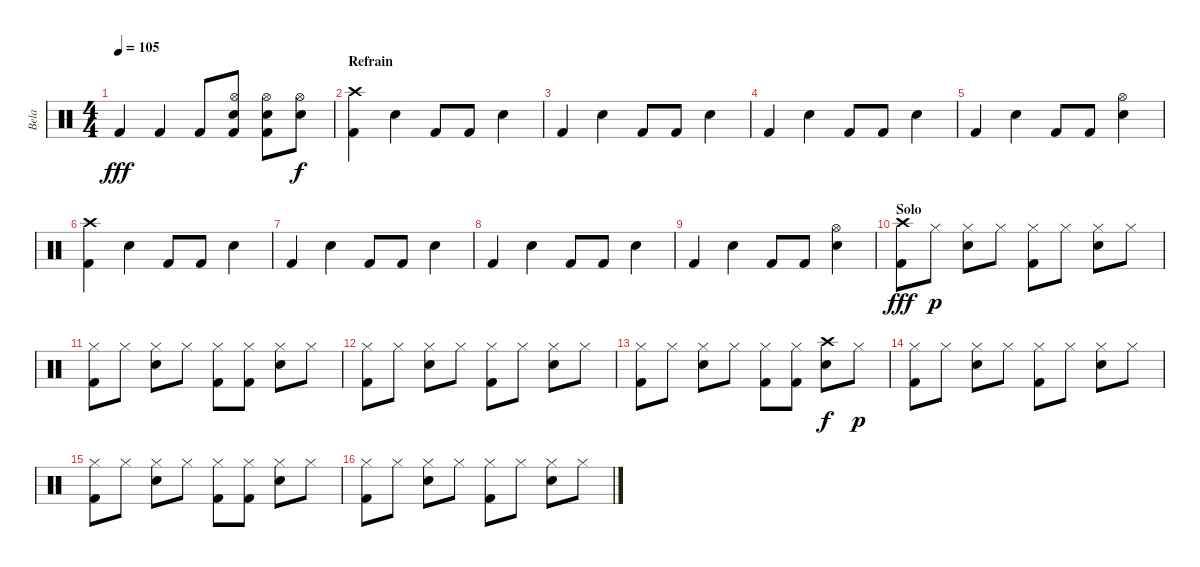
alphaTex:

\track ("Bela" "Bela") {instrument percussion}
\staff {score}
\articulation defaults
\ts (4 4)
\tempo 105
\clef neutral
\ks c "Kick (hit) 2".4{dy fff} "Kick (hit) 2".4 "Kick (hit) 2".8
("Hi-Hat (open)" "Snare (hit) 2" "Kick (hit) 2").8 ("Hi-Hat (open)" "Snare (hit) 2" "Kick (hit) 2").8 ("Hi-Hat (open)" "Snare (hit) 2").8{dy f} |
\section ("" "Refrain")
("Crash high (hit)" "Kick (hit) 2").4 "Snare (hit) 2".4 "Kick (hit) 2".8 "Kick (hit) 2".8 "Snare (hit) 2".4 |
"Kick (hit) 2".4 "Snare (hit) 2".4 "Kick (hit) 2".8 "Kick (hit) 2".8 "Snare (hit) 2".4 |
"Kick (hit) 2".4 "Snare (hit) 2".4 "Kick (hit) 2".8 "Kick (hit) 2".8 "Snare (hit) 2".4 |
"Kick (hit) 2".4 "Snare (hit) 2".4 "Kick (hit) 2".8 "Kick (hit) 2".8 ("Hi-Hat (open)" "Snare (hit) 2").4 |
("Crash high (hit)" "Kick (hit) 2").4 "Snare (hit) 2".4 "Kick (hit) 2".8 "Kick (hit) 2".8 "Snare (hit) 2".4 |
"Kick (hit) 2".4 "Snare (hit) 2".4 "Kick (hit) 2".8 "Kick (hit) 2".8 "Snare (hit) 2".4 |
"Kick (hit) 2".4 "Snare (hit) 2".4 "Kick (hit) 2".8 "Kick (hit) 2".8 "Snare (hit) 2".4 |
"Kick (hit) 2".4 "Snare (hit) 2".4 "Kick (hit) 2".8 "Kick (hit) 2".8 ("Hi-Hat (open)" "Snare (hit) 2").4 |
\section ("" "Solo")
("Crash high (hit)" "Kick (hit) 2").8{dy fff} "Hi-Hat (closed)".8{dy p} ("Hi-Hat (closed)" "Snare (hit) 2").8 "Hi-Hat (closed)".8 ("Hi-Hat (closed)" "Kick (hit) 2").8 "Hi-Hat (closed)".8 ("Hi-Hat (closed)" "Snare (hit) 2").8 "Hi-Hat (closed)".8 |
("Hi-Hat (closed)" "Kick (hit) 2").8 "Hi-Hat (closed)".8 ("Hi-Hat (closed)" "Snare (hit) 2").8 "Hi-Hat (closed)".8 ("Hi-Hat (closed)" "Kick (hit) 2").8 ("Hi-Hat (closed)" "Kick (hit) 2").8 ("Hi-Hat (closed)" "Snare (hit) 2").8 "Hi-Hat (closed)".8 |
("Hi-Hat (closed)" "Kick (hit) 2").8 "Hi-Hat (closed)".8 ("Hi-Hat (closed)" "Snare (hit) 2").8 "Hi-Hat (closed)".8 ("Hi-Hat (closed)" "Kick (hit) 2").8 "Hi-Hat (closed)".8 ("Hi-Hat (closed)" "Snare (hit) 2").8 "Hi-Hat (closed)".8 |
("Hi-Hat (closed)" "Kick (hit) 2").8 "Hi-Hat (closed)".8 ("Hi-Hat (closed)" "Snare (hit) 2").8 "Hi-Hat (closed)".8 ("Hi-Hat (closed)" "Kick (hit) 2").8 ("Hi-Hat (closed)" "Kick (hit) 2").8 ("Crash high (hit)" "Snare (hit) 2").8{dy f} "Hi-Hat (closed)".8{dy p} |
("Hi-Hat (closed)" "Kick (hit) 2").8 "Hi-Hat (closed)".8 ("Hi-Hat (closed)" "Snare (hit) 2").8 "Hi-Hat (closed)".8 ("Hi-Hat (closed)" "Kick (hit) 2").8 "Hi-Hat (closed)".8 ("Hi-Hat (closed)" "Snare (hit) 2").8 "Hi-Hat (closed)".8 |
("Hi-Hat (closed)" "Kick (hit) 2").8 "Hi-Hat (closed)".8 ("Hi-Hat (closed)" "Snare (hit) 2").8 "Hi-Hat (closed)".8 ("Hi-Hat (closed)" "Kick (hit) 2").8 ("Hi-Hat (closed)" "Kick (hit) 2").8 ("Hi-Hat (closed)" "Snare (hit) 2").8 "Hi-Hat (closed)".8 |
("Hi-Hat (closed)" "Kick (hit) 2").8 "Hi-Hat (closed)".8 ("Hi-Hat (closed)" "Snare (hit) 2").8 "Hi-Hat (closed)".8 ("Hi-Hat (closed)" "Kick (hit) 2").8 "Hi-Hat (closed)".8 ("Hi-Hat (closed)" "Snare (hit) 2").8 "Hi-Hat (closed)".8
